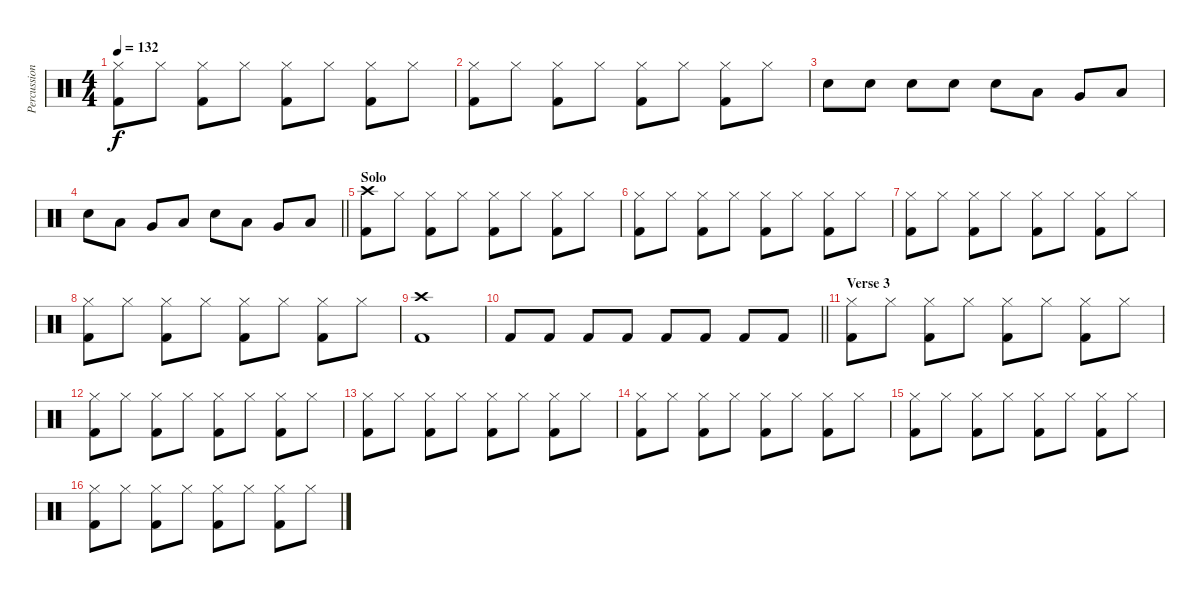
\track ("Percussion" "Percussion") {instrument percussion}
\staff {score}
\articulation defaults
\ts (4 4)
\tempo 132
\clef neutral
\ks c
("Hi-Hat (closed)" "Kick (hit) 2").8{dy f} "Hi-Hat (closed)".8 ("Hi-Hat (closed)" "Kick (hit) 2").8 "Hi-Hat (closed)".8 ("Hi-Hat (closed)" "Kick (hit) 2").8 "Hi-Hat (closed)".8 ("Hi-Hat (closed)" "Kick (hit) 2").8 "Hi-Hat (closed)".8 |
("Hi-Hat (closed)" "Kick (hit) 2").8 "Hi-Hat (closed)".8 ("Hi-Hat (closed)" "Kick (hit) 2").8 "Hi-Hat (closed)".8 ("Hi-Hat (closed)" "Kick (hit) 2").8 "Hi-Hat (closed)".8 ("Hi-Hat (closed)" "Kick (hit) 2").8 "Hi-Hat (closed)".8 |
"Snare (hit) 2".8 "Snare (hit) 2".8 "Snare (hit) 2".8 "Snare (hit) 2".8 "Snare (hit) 2".8 "Low Tom (hit)".8 "Very Low Tom (hit)".8 "Low Floor Tom (hit)".8 |
\barLineRight lightlight "Snare (hit) 2".8 "Low Tom (hit)".8 "Very Low Tom (hit)".8 "Low Floor Tom (hit)".8 "Snare (hit) 2".8 "Low Tom (hit)".8 "Very Low Tom (hit)".8 "Low Floor Tom (hit)".8
|
\section ("" "Solo")
("Crash high (hit)" "Kick (hit) 2").8 "Hi-Hat (closed)".8 ("Hi-Hat (closed)" "Kick (hit) 2").8 "Hi-Hat (closed)".8 ("Hi-Hat (closed)" "Kick (hit) 2").8 "Hi-Hat (closed)".8 ("Hi-Hat (closed)" "Kick (hit) 2").8 "Hi-Hat (closed)".8 |
("Hi-Hat (closed)" "Kick (hit) 2").8 "Hi-Hat (closed)".8 ("Hi-Hat (closed)" "Kick (hit) 2").8 "Hi-Hat (closed)".8 ("Hi-Hat (closed)" "Kick (hit) 2").8 "Hi-Hat (closed)".8 ("Hi-Hat (closed)" "Kick (hit) 2").8 "Hi-Hat (closed)".8 |
("Hi-Hat (closed)" "Kick (hit) 2").8 "Hi-Hat (closed)".8 ("Hi-Hat (closed)" "Kick (hit) 2").8 "Hi-Hat (closed)".8 ("Hi-Hat (closed)" "Kick (hit) 2").8 "Hi-Hat (closed)".8 ("Hi-Hat (closed)" "Kick (hit) 2").8 "Hi-Hat (closed)".8 |
("Hi-Hat (closed)" "Kick (hit) 2").8 "Hi-Hat (closed)".8 ("Hi-Hat (closed)" "Kick (hit) 2").8 "Hi-Hat (closed)".8 ("Hi-Hat (closed)" "Kick (hit) 2").8 "Hi-Hat (closed)".8 ("Hi-Hat (closed)" "Kick (hit) 2").8 "Hi-Hat (closed)".8 |
("Crash high (hit)" "Kick (hit) 2").1 |
\barLineRight lightlight "Kick (hit) 2".8 "Kick (hit) 2".8 "Kick (hit) 2".8 "Kick (hit) 2".8 "Kick (hit) 2".8 "Kick (hit) 2".8 "Kick (hit) 2".8 "Kick (hit) 2".8
|
\section ("" "Verse 3")
("Hi-Hat (closed)" "Kick (hit) 2").8 "Hi-Hat (closed)".8 ("Hi-Hat (closed)" "Kick (hit) 2").8 "Hi-Hat (closed)".8 ("Hi-Hat (closed)" "Kick (hit) 2").8 "Hi-Hat (closed)".8 ("Hi-Hat (closed)" "Kick (hit) 2").8 "Hi-Hat (closed)".8 |
("Hi-Hat (closed)" "Kick (hit) 2").8 "Hi-Hat (closed)".8 ("Hi-Hat (closed)" "Kick (hit) 2").8 "Hi-Hat (closed)".8 ("Hi-Hat (closed)" "Kick (hit) 2").8 "Hi-Hat (closed)".8 ("Hi-Hat (closed)" "Kick (hit) 2").8 "Hi-Hat (closed)".8 |
("Hi-Hat (closed)" "Kick (hit) 2").8 "Hi-Hat (closed)".8 ("Hi-Hat (closed)" "Kick (hit) 2").8 "Hi-Hat (closed)".8 ("Hi-Hat (closed)" "Kick (hit) 2").8 "Hi-Hat (closed)".8 ("Hi-Hat (closed)" "Kick (hit) 2").8 "Hi-Hat (closed)".8 |
("Hi-Hat (closed)" "Kick (hit) 2").8 "Hi-Hat (closed)".8 ("Hi-Hat (closed)" "Kick (hit) 2").8 "Hi-Hat (closed)".8 ("Hi-Hat (closed)" "Kick (hit) 2").8 "Hi-Hat (closed)".8 ("Hi-Hat (closed)" "Kick (hit) 2").8 "Hi-Hat (closed)".8 |
("Hi-Hat (closed)" "Kick (hit) 2").8 "Hi-Hat (closed)".8 ("Hi-Hat (closed)" "Kick (hit) 2").8 "Hi-Hat (closed)".8 ("Hi-Hat (closed)" "Kick (hit) 2").8 "Hi-Hat (closed)".8 ("Hi-Hat (closed)" "Kick (hit) 2").8 "Hi-Hat (closed)".8 |
("Hi-Hat (closed)" "Kick (hit) 2").8 "Hi-Hat (closed)".8 ("Hi-Hat (closed)" "Kick (hit) 2").8 "Hi-Hat (closed)".8 ("Hi-Hat (closed)" "Kick (hit) 2").8 "Hi-Hat (closed)".8 ("Hi-Hat (closed)" "Kick (hit) 2").8 "Hi-Hat (closed)".8
